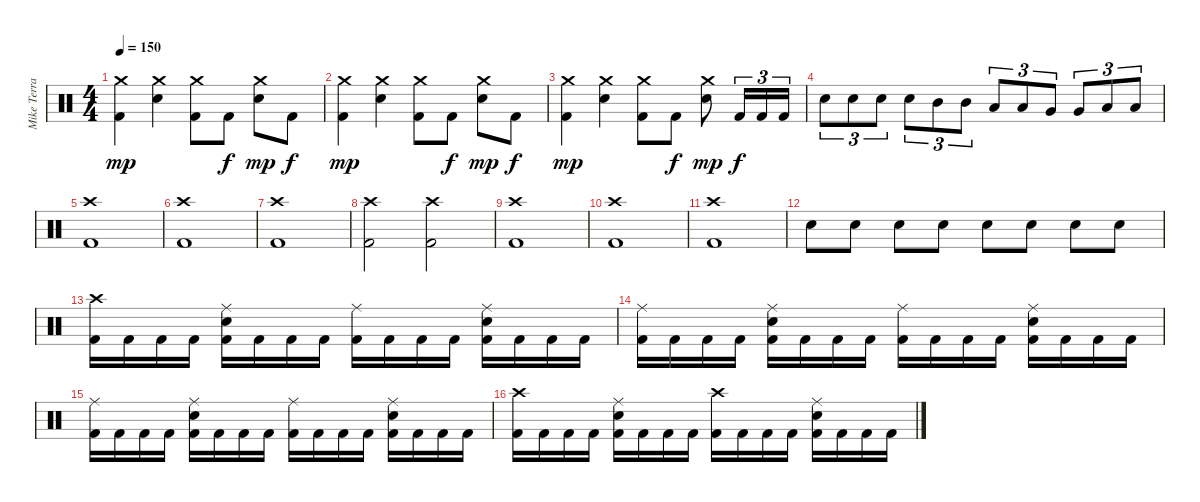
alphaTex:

\track ("Mike Terrana" "Mike Terra") {instrument percussion}
\staff {score}
\articulation defaults
\ts (4 4)
\tempo 150
\clef neutral
\ks c
("Crash medium (hit)" "Kick (hit) 2").4{dy mp} ("Crash medium (hit)" "Electric Snare (hit)").4 ("Crash medium (hit)" "Kick (hit) 2").8 "Kick (hit) 2".8{dy f} ("Crash medium (hit)" "Electric Snare (hit)").8{dy mp} "Kick (hit) 2".8{dy f} |
("Crash medium (hit)" "Kick (hit) 2").4{dy mp} ("Crash medium (hit)" "Electric Snare (hit)").4 ("Crash medium (hit)" "Kick (hit) 2").8 "Kick (hit) 2".8{dy f} ("Crash medium (hit)" "Electric Snare (hit)").8{dy mp} "Kick (hit) 2".8{dy f} |
("Crash medium (hit)" "Kick (hit) 2").4{dy mp} ("Crash medium (hit)" "Electric Snare (hit)").4 ("Crash medium (hit)" "Kick (hit) 2").8 "Kick (hit) 2".8{dy f} ("Crash medium (hit)" "Electric Snare (hit)").8{dy mp} "Kick (hit) 2".16{tu (3 2) dy f} "Kick (hit) 2".16{tu (3 2)} "Kick (hit) 2".16{tu (3 2)} |
"Electric Snare (hit)".8{tu (3 2)} "Electric Snare (hit)".8{tu (3 2)} "Electric Snare (hit)".8{tu (3 2)} "Electric Snare (hit)".8{tu (3 2)} "Mid Tom (hit)".8{tu (3 2)} "Mid Tom (hit)".8{tu (3 2)} "Low Tom (hit)".8{tu (3 2)} "Low Tom (hit)".8{tu (3 2)} "Very Low Tom (hit)".8{tu (3 2)} "Very Low Tom (hit)".8{tu (3 2)} "Low Floor Tom (hit)".8{tu (3 2)} "Low Floor Tom (hit)".8{tu (3 2)} |
("Crash high (hit)" "Kick (hit) 2").1 |
("Crash high (hit)" "Kick (hit) 2").1 |
("Crash high (hit)" "Kick (hit) 2").1 |
("Crash high (hit)" "Kick (hit) 2").2 ("Crash high (hit)" "Kick (hit) 2").2 |
("Crash high (hit)" "Kick (hit) 2").1 |
("Crash high (hit)" "Kick (hit) 2").1 |
("Crash high (hit)" "Kick (hit) 2").1 |
"Electric Snare (hit)".8 "Electric Snare (hit)".8 "Electric Snare (hit)".8 "Electric Snare (hit)".8 "Electric Snare (hit)".8 "Electric Snare (hit)".8 "Electric Snare (hit)".8 "Electric Snare (hit)".8 |
("Crash high (hit)" "Kick (hit) 2").16 "Kick (hit) 2".16 "Kick (hit) 2".16 "Kick (hit) 2".16 ("Ride (middle)" "Electric Snare (hit)" "Kick (hit) 2").16 "Kick (hit) 2".16 "Kick (hit) 2".16 "Kick (hit) 2".16 ("Ride (middle)" "Kick (hit) 2").16 "Kick (hit) 2".16 "Kick (hit) 2".16 "Kick (hit) 2".16 ("Ride (middle)" "Electric Snare (hit)" "Kick (hit) 2").16 "Kick (hit) 2".16 "Kick (hit) 2".16 "Kick (hit) 2".16 |
("Ride (middle)" "Kick (hit) 2").16 "Kick (hit) 2".16 "Kick (hit) 2".16 "Kick (hit) 2".16 ("Ride (middle)" "Electric Snare (hit)" "Kick (hit) 2").16 "Kick (hit) 2".16 "Kick (hit) 2".16 "Kick (hit) 2".16 ("Ride (middle)" "Kick (hit) 2").16 "Kick (hit) 2".16 "Kick (hit) 2".16 "Kick (hit) 2".16 ("Ride (middle)" "Electric Snare (hit)" "Kick (hit) 2").16 "Kick (hit) 2".16 "Kick (hit) 2".16 "Kick (hit) 2".16 |
("Ride (middle)" "Kick (hit) 2").16 "Kick (hit) 2".16 "Kick (hit) 2".16 "Kick (hit) 2".16 ("Ride (middle)" "Electric Snare (hit)" "Kick (hit) 2").16 "Kick (hit) 2".16 "Kick (hit) 2".16 "Kick (hit) 2".16 ("Ride (middle)" "Kick (hit) 2").16 "Kick (hit) 2".16 "Kick (hit) 2".16 "Kick (hit) 2".16 ("Ride (middle)" "Electric Snare (hit)" "Kick (hit) 2").16 "Kick (hit) 2".16 "Kick (hit) 2".16 "Kick (hit) 2".16 |
("Crash high (hit)" "Kick (hit) 2").16 "Kick (hit) 2".16 "Kick (hit) 2".16 "Kick (hit) 2".16 ("Ride (middle)" "Electric Snare (hit)" "Kick (hit) 2").16 "Kick (hit) 2".16 "Kick (hit) 2".16 "Kick (hit) 2".16 ("Crash high (hit)" "Kick (hit) 2").16 "Kick (hit) 2".16 "Kick (hit) 2".16 "Kick (hit) 2".16 ("Ride (middle)" "Electric Snare (hit)" "Kick (hit) 2").16 "Kick (hit) 2".16 "Kick (hit) 2".16 "Kick (hit) 2".16
